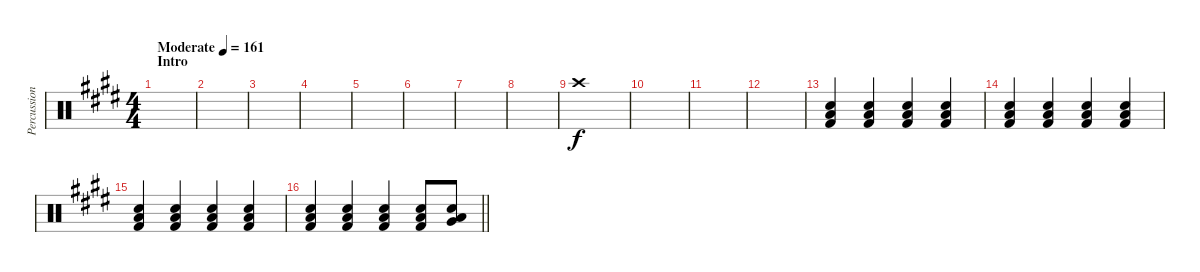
\track ("Percussion" "Percussion") {instrument percussion}
\staff
\articulation defaults
\ts (4 4)
\section ("" "Intro")
\tempo (161 "Moderate")
\clef neutral
\ks e
|
|
|
|
|
|
|
|
"Crash high (hit)".1 |
|
|
|
("Snare (hit) 2" "Low Tom (hit)" "Kick (hit) 2").4{volume 13} ("Snare (hit) 2" "Low Tom (hit)" "Kick (hit) 2").4 ("Snare (hit) 2" "Low Tom (hit)" "Kick (hit) 2").4 ("Snare (hit) 2" "Low Tom (hit)" "Kick (hit) 2").4 |
("Snare (hit) 2" "Low Tom (hit)" "Kick (hit) 2").4 ("Snare (hit) 2" "Low Tom (hit)" "Kick (hit) 2").4 ("Snare (hit) 2" "Low Tom (hit)" "Kick (hit) 2").4 ("Snare (hit) 2" "Low Tom (hit)" "Kick (hit) 2").4 |
("Snare (hit) 2" "Low Tom (hit)" "Kick (hit) 2").4 ("Snare (hit) 2" "Low Tom (hit)" "Kick (hit) 2").4 ("Snare (hit) 2" "Low Tom (hit)" "Kick (hit) 2").4 ("Snare (hit) 2" "Low Tom (hit)" "Kick (hit) 2").4 |
\barLineRight lightlight
("Snare (hit) 2" "Low Tom (hit)" "Kick (hit) 2").4 ("Snare (hit) 2" "Low Tom (hit)" "Kick (hit) 2").4 ("Snare (hit) 2" "Low Tom (hit)" "Kick (hit) 2").4 ("Snare (hit) 2" "Low Tom (hit)" "Kick (hit) 2").8 ("Snare (hit) 2" "Very Low Tom (hit)" "Low Tom (hit)").8
